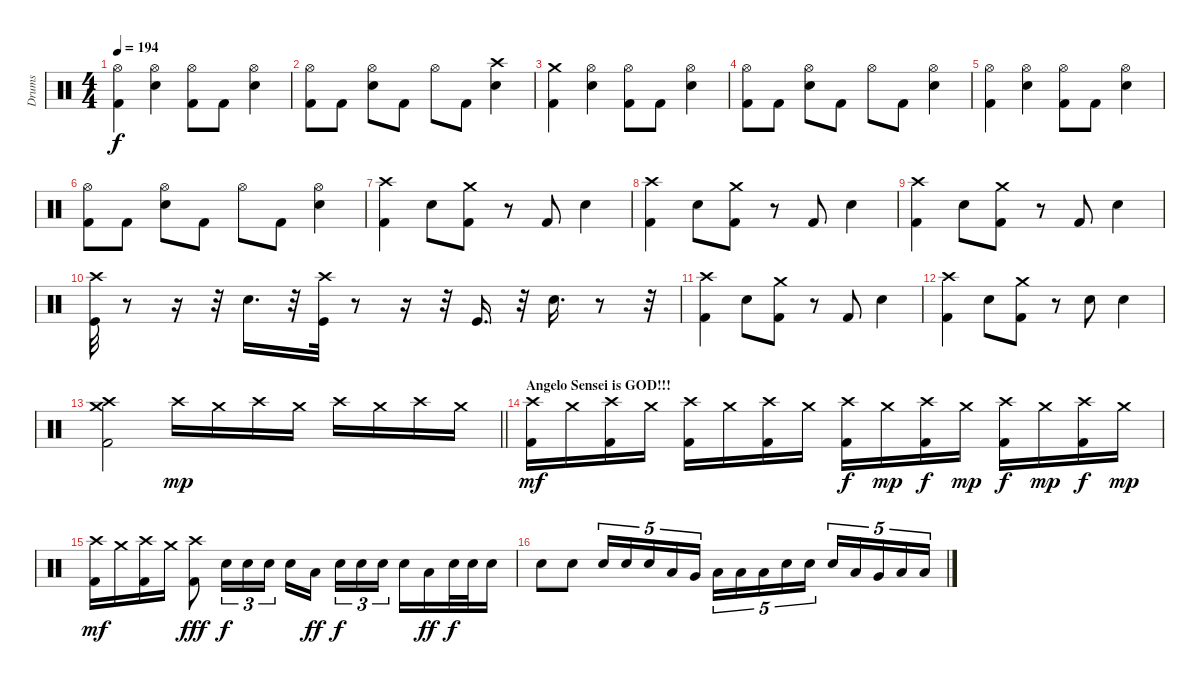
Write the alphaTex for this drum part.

\track ("Drums" "Drums") {instrument percussion}
\staff {score}
\articulation defaults
\ts (4 4)
\tempo 194
\clef neutral
\ks c
("Hi-Hat (open)" "Kick (hit) 2").4{dy f} ("Hi-Hat (open)" "Snare (hit) 2").4 ("Hi-Hat (open)" "Kick (hit) 2").8 "Kick (hit) 2".8 ("Hi-Hat (open)" "Snare (hit) 2").4 |
("Hi-Hat (open)" "Kick (hit) 2").8 "Kick (hit) 2".8 ("Hi-Hat (open)" "Snare (hit) 2").8 "Kick (hit) 2".8 "Hi-Hat (open)".8 "Kick (hit) 2".8 ("Crash high (hit)" "Snare (hit) 2").4 |
("Crash medium (hit)" "Kick (hit) 2").4 ("Hi-Hat (open)" "Snare (hit) 2").4 ("Hi-Hat (open)" "Kick (hit) 2").8 "Kick (hit) 2".8 ("Hi-Hat (open)" "Snare (hit) 2").4 |
("Hi-Hat (open)" "Kick (hit) 2").8 "Kick (hit) 2".8 ("Hi-Hat (open)" "Snare (hit) 2").8 "Kick (hit) 2".8 "Hi-Hat (open)".8 "Kick (hit) 2".8 ("Hi-Hat (open)" "Snare (hit) 2").4 |
("Hi-Hat (open)" "Kick (hit) 2").4 ("Hi-Hat (open)" "Snare (hit) 2").4 ("Hi-Hat (open)" "Kick (hit) 2").8 "Kick (hit) 2".8 ("Hi-Hat (open)" "Snare (hit) 2").4 |
("Hi-Hat (open)" "Kick (hit) 2").8 "Kick (hit) 2".8 ("Hi-Hat (open)" "Snare (hit) 2").8 "Kick (hit) 2".8 "Hi-Hat (open)".8 "Kick (hit) 2".8 ("Hi-Hat (open)" "Snare (hit) 2").4 |
("Crash high (hit)" "Kick (hit) 2").4 "Snare (hit) 2".8 ("Crash medium (hit)" "Kick (hit) 2").8 r.8 "Kick (hit) 2".8 "Snare (hit) 2".4 |
("Crash high (hit)" "Kick (hit) 2").4 "Snare (hit) 2".8 ("Crash medium (hit)" "Kick (hit) 2").8 r.8 "Kick (hit) 2".8 "Snare (hit) 2".4 |
("Crash high (hit)" "Kick (hit) 2").4 "Snare (hit) 2".8 ("Crash medium (hit)" "Kick (hit) 2").8 r.8 "Kick (hit) 2".8 "Snare (hit) 2".4 |
("Kick (hit)" "Crash high (hit)").32 r.8 r.16 r.32 "Snare (hit) 2".16{d} r.32 ("Crash high (hit)" "Kick (hit)").32 r.8 r.16 r.32 "Kick (hit)".16{d} r.32 "Snare (hit) 2".16{d} r.8 r.32 |
("Crash high (hit)" "Kick (hit) 2").4 "Snare (hit) 2".8 ("Crash medium (hit)" "Kick (hit) 2").8 r.8 "Kick (hit) 2".8 "Snare (hit) 2".4 |
("Crash high (hit)" "Kick (hit) 2").4 "Snare (hit) 2".8 ("Crash medium (hit)" "Kick (hit) 2").8 r.8 "Snare (hit) 2".8 "Snare (hit) 2".4 |
\barLineRight lightlight
("Crash high (hit)" "Crash medium (hit)" "Kick (hit) 2").2 "Crash high (hit)".16{dy mp} "Crash medium (hit)".16 "Crash high (hit)".16 "Crash medium (hit)".16 "Crash high (hit)".16 "Crash medium (hit)".16 "Crash high (hit)".16 "Crash medium (hit)".16 |
\section ("" "Angelo Sensei is GOD!!!")
("Crash high (hit)" "Kick (hit) 2").16{dy mf} "Crash medium (hit)".16 ("Crash high (hit)" "Kick (hit) 2").16 "Crash medium (hit)".16 ("Crash high (hit)" "Kick (hit) 2").16 "Crash medium (hit)".16 ("Crash high (hit)" "Kick (hit) 2").16 "Crash medium (hit)".16 ("Crash high (hit)" "Kick (hit) 2").16{dy f} "Crash medium (hit)".16{dy mp} ("Crash high (hit)" "Kick (hit) 2").16{dy f} "Crash medium (hit)".16{dy mp} ("Crash high (hit)" "Kick (hit) 2").16{dy f} "Crash medium (hit)".16{dy mp} ("Crash high (hit)" "Kick (hit) 2").16{dy f} "Crash medium (hit)".16{dy mp} |
("Crash high (hit)" "Kick (hit) 2").16{dy mf} "Crash medium (hit)".16 ("Crash high (hit)" "Kick (hit) 2").16 "Crash medium (hit)".16 ("Crash high (hit)" "Kick (hit) 2").8{dy fff} "Snare (hit) 2".16{tu (3 2) dy f} "Snare (hit) 2".16{tu (3 2)} "Snare (hit) 2".16{tu (3 2)} "Snare (hit) 2".16 "Low Tom (hit)".16{dy ff beam splitsecondary} "Snare (hit) 2".16{tu (3 2) dy f} "Snare (hit) 2".16{tu (3 2)} "Snare (hit) 2".16{tu (3 2)} "Snare (hit) 2".16 "Low Tom (hit)".16{dy ff} "Snare (hit) 2".32{dy f} "Snare (hit) 2".32 "Snare (hit) 2".16 |
"Snare (hit) 2".8 "Snare (hit) 2".8 "Snare (hit) 2".16{tu (5 4)} "Snare (hit) 2".16{tu (5 4)} "Snare (hit) 2".16{tu (5 4)} "Low Tom (hit)".16{tu (5 4)} "Very Low Tom (hit)".16{tu (5 4)} "Low Floor Tom (hit)".16{tu (5 4)} "Low Floor Tom (hit)".16{tu (5 4)} "Low Floor Tom (hit)".16{tu (5 4)} "Snare (hit) 2".16{tu (5 4)} "Snare (hit) 2".16{tu (5 4)} "Snare (hit) 2".16{tu (5 4)} "Low Tom (hit)".16{tu (5 4)} "Very Low Tom (hit)".16{tu (5 4)} "Low Floor Tom (hit)".16{tu (5 4)} "Low Floor Tom (hit)".16{tu (5 4)}
